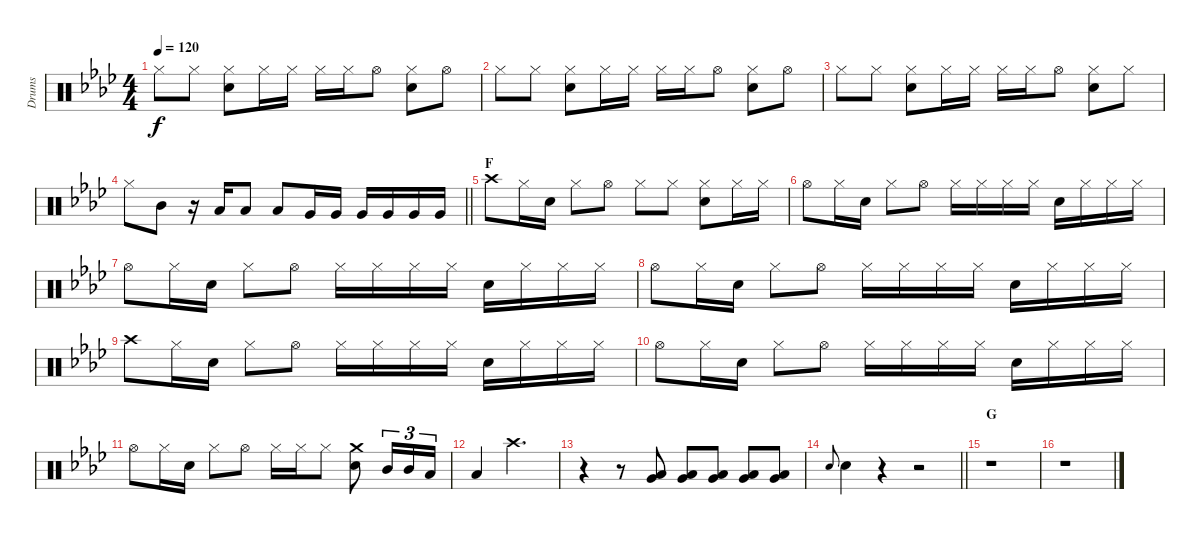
\track ("Drums" "Drums") {instrument percussion}
\staff {score}
\articulation defaults
\ts (4 4)
\tempo 120
\clef neutral
\ks ab "Hi-Hat (closed)".8{dy f} "Hi-Hat (closed)".8
("Hi-Hat (closed)" "Snare (hit) 2").8 "Hi-Hat (closed)".16 "Hi-Hat (closed)".16 "Hi-Hat (closed)".16 "Hi-Hat (closed)".16 "Hi-Hat (open)".8 ("Hi-Hat (closed)" "Snare (hit) 2").8 "Hi-Hat (open)".8 |
"Hi-Hat (closed)".8 "Hi-Hat (closed)".8 ("Hi-Hat (closed)" "Snare (hit) 2").8 "Hi-Hat (closed)".16 "Hi-Hat (closed)".16 "Hi-Hat (closed)".16 "Hi-Hat (closed)".16 "Hi-Hat (open)".8 ("Hi-Hat (closed)" "Snare (hit) 2").8 "Hi-Hat (open)".8 |
"Hi-Hat (closed)".8 "Hi-Hat (closed)".8 ("Hi-Hat (closed)" "Snare (hit) 2").8 "Hi-Hat (closed)".16 "Hi-Hat (closed)".16 "Hi-Hat (closed)".16 "Hi-Hat (closed)".16 "Hi-Hat (open)".8 ("Hi-Hat (closed)" "Snare (hit) 2").8 "Hi-Hat (closed)".8 |
\barLineRight lightlight "Hi-Hat (closed)".8 "Mid Tom (hit)".8
r.16 "Low Tom (hit)".16 "Low Tom (hit)".8 "Low Tom (hit)".8 "Very Low Tom (hit)".16 "Very Low Tom (hit)".16 "Very Low Tom (hit)".16 "Very Low Tom (hit)".16 "Very Low Tom (hit)".16 "Very Low Tom (hit)".16 |
\section ("" "F")
"Crash high (hit)".8 "Hi-Hat (closed)".16 "Snare (hit) 2".16 "Hi-Hat (closed)".8 "Hi-Hat (open)".8 "Hi-Hat (closed)".8 "Hi-Hat (closed)".8 ("Hi-Hat (closed)" "Snare (hit) 2").8 "Hi-Hat (closed)".16 "Hi-Hat (closed)".16 |
"Hi-Hat (open)".8 "Hi-Hat (closed)".16 "Snare (hit) 2".16 "Hi-Hat (closed)".8 "Hi-Hat (open)".8 "Hi-Hat (closed)".16 "Hi-Hat (closed)".16 "Hi-Hat (closed)".16 "Hi-Hat (closed)".16 "Snare (hit) 2".16 "Hi-Hat (closed)".16 "Hi-Hat (closed)".16 "Hi-Hat (closed)".16 |
"Hi-Hat (open)".8 "Hi-Hat (closed)".16 "Snare (hit) 2".16 "Hi-Hat (closed)".8 "Hi-Hat (open)".8 "Hi-Hat (closed)".16 "Hi-Hat (closed)".16 "Hi-Hat (closed)".16 "Hi-Hat (closed)".16 "Snare (hit) 2".16 "Hi-Hat (closed)".16 "Hi-Hat (closed)".16 "Hi-Hat (closed)".16 |
"Hi-Hat (open)".8 "Hi-Hat (closed)".16 "Snare (hit) 2".16 "Hi-Hat (closed)".8 "Hi-Hat (open)".8 "Hi-Hat (closed)".16 "Hi-Hat (closed)".16 "Hi-Hat (closed)".16 "Hi-Hat (closed)".16 "Snare (hit) 2".16 "Hi-Hat (closed)".16 "Hi-Hat (closed)".16 "Hi-Hat (closed)".16 |
"Crash high (hit)".8 "Hi-Hat (closed)".16 "Snare (hit) 2".16 "Hi-Hat (closed)".8 "Hi-Hat (open)".8 "Hi-Hat (closed)".16 "Hi-Hat (closed)".16 "Hi-Hat (closed)".16 "Hi-Hat (closed)".16 "Snare (hit) 2".16 "Hi-Hat (closed)".16 "Hi-Hat (closed)".16 "Hi-Hat (closed)".16 |
"Hi-Hat (open)".8 "Hi-Hat (closed)".16 "Snare (hit) 2".16 "Hi-Hat (closed)".8 "Hi-Hat (open)".8 "Hi-Hat (closed)".16 "Hi-Hat (closed)".16 "Hi-Hat (closed)".16 "Hi-Hat (closed)".16 "Snare (hit) 2".16 "Hi-Hat (closed)".16 "Hi-Hat (closed)".16 "Hi-Hat (closed)".16 |
"Hi-Hat (open)".8 "Hi-Hat (closed)".16 "Snare (hit) 2".16 "Hi-Hat (closed)".8 "Hi-Hat (open)".8 "Hi-Hat (closed)".16 "Hi-Hat (closed)".16 "Hi-Hat (closed)".8 ("Crash medium (hit)" "Snare (hit) 2").8 "Mid Tom (hit)".16{tu (3 2)} "Mid Tom (hit)".16{tu (3 2)} "Low Tom (hit)".16{tu (3 2)} |
"Low Tom (hit)".4 "Crash high (hit)".2{d} |
r.4 r.8 ("Low Tom (hit)" "Very Low Tom (hit)").8 ("Low Tom (hit)" "Very Low Tom (hit)").8 ("Low Tom (hit)" "Very Low Tom (hit)").8 ("Low Tom (hit)" "Very Low Tom (hit)").8 ("Low Tom (hit)" "Very Low Tom (hit)").8 |
\barLineRight lightlight "Snare (hit) 2".8{gr onbeat} "Snare (hit) 2".4
r.4 r.2 |
\section ("" "G")
r.1 |
r.1
